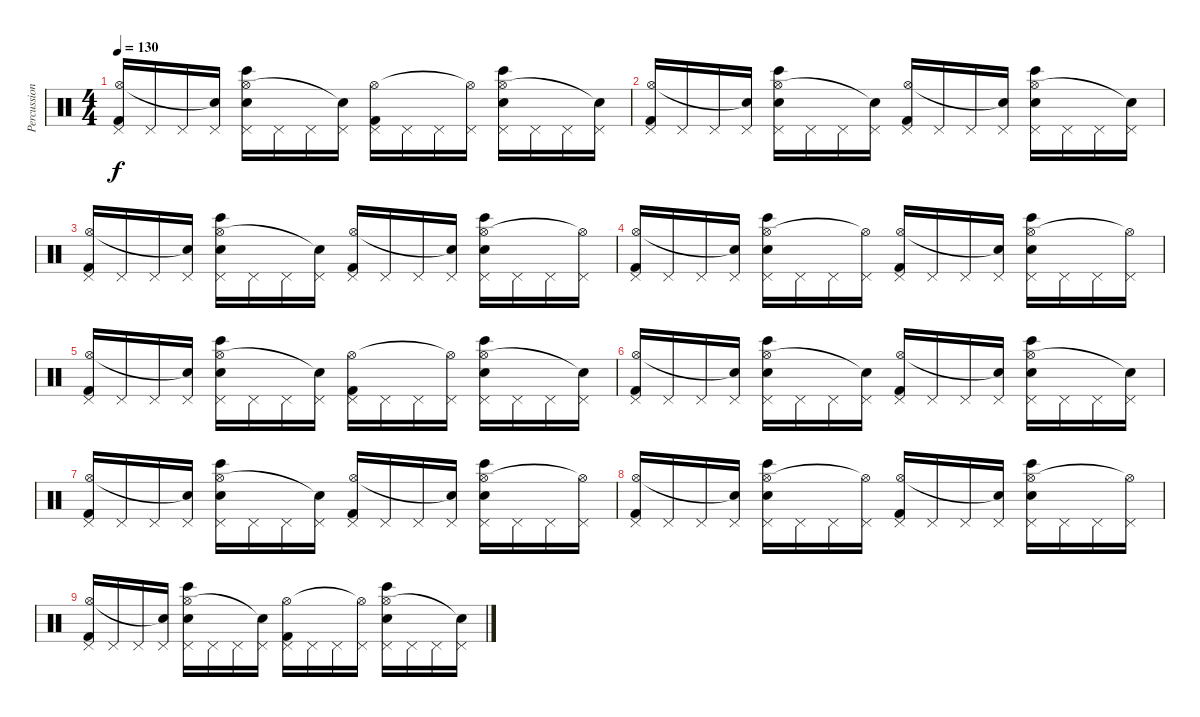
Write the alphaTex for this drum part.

\track ("Percussion" "Percussion") {instrument percussion}
\staff {score}
\articulation defaults
\ts (4 4)
\tempo 130
\clef neutral
\ks c
("Pedal Hi-Hat (hit)" "Hi-Hat (open)" "Kick (hit) 2").16{dy f} "Pedal Hi-Hat (hit)".16 "Pedal Hi-Hat (hit)".16 ("Pedal Hi-Hat (hit)" "Snare (hit)"{t}).16 ("Pedal Hi-Hat (hit)" "Hi-Hat (open)" "Electric Snare (hit)" "Bongo High (hit)").16 "Pedal Hi-Hat (hit)".16 "Pedal Hi-Hat (hit)".16 ("Pedal Hi-Hat (hit)" "Snare (hit)"{t}).16 ("Pedal Hi-Hat (hit)" "Hi-Hat (open)" "Kick (hit) 2").16 "Pedal Hi-Hat (hit)".16 "Pedal Hi-Hat (hit)".16 ("Pedal Hi-Hat (hit)" "Hi-Hat (open)"{t}).16 ("Pedal Hi-Hat (hit)" "Hi-Hat (open)" "Electric Snare (hit)" "Bongo High (hit)").16 "Pedal Hi-Hat (hit)".16 "Pedal Hi-Hat (hit)".16 ("Pedal Hi-Hat (hit)" "Snare (hit)"{t}).16 |
("Pedal Hi-Hat (hit)" "Hi-Hat (open)" "Kick (hit) 2").16 "Pedal Hi-Hat (hit)".16 "Pedal Hi-Hat (hit)".16 ("Pedal Hi-Hat (hit)" "Snare (hit)"{t}).16 ("Pedal Hi-Hat (hit)" "Hi-Hat (open)" "Electric Snare (hit)" "Bongo High (hit)").16 "Pedal Hi-Hat (hit)".16 "Pedal Hi-Hat (hit)".16 ("Pedal Hi-Hat (hit)" "Snare (hit)"{t}).16 ("Pedal Hi-Hat (hit)" "Hi-Hat (open)" "Kick (hit) 2").16 "Pedal Hi-Hat (hit)".16 "Pedal Hi-Hat (hit)".16 ("Pedal Hi-Hat (hit)" "Snare (hit)"{t}).16 ("Pedal Hi-Hat (hit)" "Hi-Hat (open)" "Electric Snare (hit)" "Bongo High (hit)").16 "Pedal Hi-Hat (hit)".16 "Pedal Hi-Hat (hit)".16 ("Pedal Hi-Hat (hit)" "Snare (hit)"{t}).16 |
("Pedal Hi-Hat (hit)" "Hi-Hat (open)" "Kick (hit) 2").16 "Pedal Hi-Hat (hit)".16 "Pedal Hi-Hat (hit)".16 ("Pedal Hi-Hat (hit)" "Snare (hit)"{t}).16 ("Pedal Hi-Hat (hit)" "Hi-Hat (open)" "Electric Snare (hit)" "Bongo High (hit)").16 "Pedal Hi-Hat (hit)".16 "Pedal Hi-Hat (hit)".16 ("Pedal Hi-Hat (hit)" "Snare (hit)"{t}).16 ("Pedal Hi-Hat (hit)" "Hi-Hat (open)" "Kick (hit) 2").16 "Pedal Hi-Hat (hit)".16 "Pedal Hi-Hat (hit)".16 ("Pedal Hi-Hat (hit)" "Snare (hit)"{t}).16 ("Pedal Hi-Hat (hit)" "Hi-Hat (open)" "Electric Snare (hit)" "Bongo High (hit)").16 "Pedal Hi-Hat (hit)".16 "Pedal Hi-Hat (hit)".16 ("Pedal Hi-Hat (hit)" "Hi-Hat (open)"{t}).16 |
("Pedal Hi-Hat (hit)" "Hi-Hat (open)" "Kick (hit) 2").16 "Pedal Hi-Hat (hit)".16 "Pedal Hi-Hat (hit)".16 ("Pedal Hi-Hat (hit)" "Snare (hit)"{t}).16 ("Pedal Hi-Hat (hit)" "Hi-Hat (open)" "Electric Snare (hit)" "Bongo High (hit)").16 "Pedal Hi-Hat (hit)".16 "Pedal Hi-Hat (hit)".16 ("Pedal Hi-Hat (hit)" "Hi-Hat (open)"{t}).16 ("Pedal Hi-Hat (hit)" "Hi-Hat (open)" "Kick (hit) 2").16 "Pedal Hi-Hat (hit)".16 "Pedal Hi-Hat (hit)".16 ("Pedal Hi-Hat (hit)" "Snare (hit)"{t}).16 ("Pedal Hi-Hat (hit)" "Hi-Hat (open)" "Electric Snare (hit)" "Bongo High (hit)").16 "Pedal Hi-Hat (hit)".16 "Pedal Hi-Hat (hit)".16 ("Pedal Hi-Hat (hit)" "Hi-Hat (open)"{t}).16 |
("Pedal Hi-Hat (hit)" "Hi-Hat (open)" "Kick (hit) 2").16 "Pedal Hi-Hat (hit)".16 "Pedal Hi-Hat (hit)".16 ("Pedal Hi-Hat (hit)" "Snare (hit)"{t}).16 ("Pedal Hi-Hat (hit)" "Hi-Hat (open)" "Electric Snare (hit)" "Bongo High (hit)").16 "Pedal Hi-Hat (hit)".16 "Pedal Hi-Hat (hit)".16 ("Pedal Hi-Hat (hit)" "Snare (hit)"{t}).16 ("Pedal Hi-Hat (hit)" "Hi-Hat (open)" "Kick (hit) 2").16 "Pedal Hi-Hat (hit)".16 "Pedal Hi-Hat (hit)".16 ("Pedal Hi-Hat (hit)" "Hi-Hat (open)"{t}).16 ("Pedal Hi-Hat (hit)" "Hi-Hat (open)" "Electric Snare (hit)" "Bongo High (hit)").16 "Pedal Hi-Hat (hit)".16 "Pedal Hi-Hat (hit)".16 ("Pedal Hi-Hat (hit)" "Snare (hit)"{t}).16 |
("Pedal Hi-Hat (hit)" "Hi-Hat (open)" "Kick (hit) 2").16 "Pedal Hi-Hat (hit)".16 "Pedal Hi-Hat (hit)".16 ("Pedal Hi-Hat (hit)" "Snare (hit)"{t}).16 ("Pedal Hi-Hat (hit)" "Hi-Hat (open)" "Electric Snare (hit)" "Bongo High (hit)").16 "Pedal Hi-Hat (hit)".16 "Pedal Hi-Hat (hit)".16 ("Pedal Hi-Hat (hit)" "Snare (hit)"{t}).16 ("Pedal Hi-Hat (hit)" "Hi-Hat (open)" "Kick (hit) 2").16 "Pedal Hi-Hat (hit)".16 "Pedal Hi-Hat (hit)".16 ("Pedal Hi-Hat (hit)" "Snare (hit)"{t}).16 ("Pedal Hi-Hat (hit)" "Hi-Hat (open)" "Electric Snare (hit)" "Bongo High (hit)").16 "Pedal Hi-Hat (hit)".16 "Pedal Hi-Hat (hit)".16 ("Pedal Hi-Hat (hit)" "Snare (hit)"{t}).16 |
("Pedal Hi-Hat (hit)" "Hi-Hat (open)" "Kick (hit) 2").16 "Pedal Hi-Hat (hit)".16 "Pedal Hi-Hat (hit)".16 ("Pedal Hi-Hat (hit)" "Snare (hit)"{t}).16 ("Pedal Hi-Hat (hit)" "Hi-Hat (open)" "Electric Snare (hit)" "Bongo High (hit)").16 "Pedal Hi-Hat (hit)".16 "Pedal Hi-Hat (hit)".16 ("Pedal Hi-Hat (hit)" "Snare (hit)"{t}).16 ("Pedal Hi-Hat (hit)" "Hi-Hat (open)" "Kick (hit) 2").16 "Pedal Hi-Hat (hit)".16 "Pedal Hi-Hat (hit)".16 ("Pedal Hi-Hat (hit)" "Snare (hit)"{t}).16 ("Pedal Hi-Hat (hit)" "Hi-Hat (open)" "Electric Snare (hit)" "Bongo High (hit)").16 "Pedal Hi-Hat (hit)".16 "Pedal Hi-Hat (hit)".16 ("Pedal Hi-Hat (hit)" "Hi-Hat (open)"{t}).16 |
("Pedal Hi-Hat (hit)" "Hi-Hat (open)" "Kick (hit) 2").16 "Pedal Hi-Hat (hit)".16 "Pedal Hi-Hat (hit)".16 ("Pedal Hi-Hat (hit)" "Snare (hit)"{t}).16 ("Pedal Hi-Hat (hit)" "Hi-Hat (open)" "Electric Snare (hit)" "Bongo High (hit)").16 "Pedal Hi-Hat (hit)".16 "Pedal Hi-Hat (hit)".16 ("Pedal Hi-Hat (hit)" "Hi-Hat (open)"{t}).16 ("Pedal Hi-Hat (hit)" "Hi-Hat (open)" "Kick (hit) 2").16 "Pedal Hi-Hat (hit)".16 "Pedal Hi-Hat (hit)".16 ("Pedal Hi-Hat (hit)" "Snare (hit)"{t}).16 ("Pedal Hi-Hat (hit)" "Hi-Hat (open)" "Electric Snare (hit)" "Bongo High (hit)").16 "Pedal Hi-Hat (hit)".16 "Pedal Hi-Hat (hit)".16 ("Pedal Hi-Hat (hit)" "Hi-Hat (open)"{t}).16 |
("Pedal Hi-Hat (hit)" "Hi-Hat (open)" "Kick (hit) 2").16 "Pedal Hi-Hat (hit)".16 "Pedal Hi-Hat (hit)".16 ("Pedal Hi-Hat (hit)" "Snare (hit)"{t}).16 ("Pedal Hi-Hat (hit)" "Hi-Hat (open)" "Electric Snare (hit)" "Bongo High (hit)").16 "Pedal Hi-Hat (hit)".16 "Pedal Hi-Hat (hit)".16 ("Pedal Hi-Hat (hit)" "Snare (hit)"{t}).16 ("Pedal Hi-Hat (hit)" "Hi-Hat (open)" "Kick (hit) 2").16 "Pedal Hi-Hat (hit)".16 "Pedal Hi-Hat (hit)".16 ("Pedal Hi-Hat (hit)" "Hi-Hat (open)"{t}).16 ("Pedal Hi-Hat (hit)" "Hi-Hat (open)" "Electric Snare (hit)" "Bongo High (hit)").16 "Pedal Hi-Hat (hit)".16 "Pedal Hi-Hat (hit)".16 ("Pedal Hi-Hat (hit)" "Snare (hit)"{t}).16
